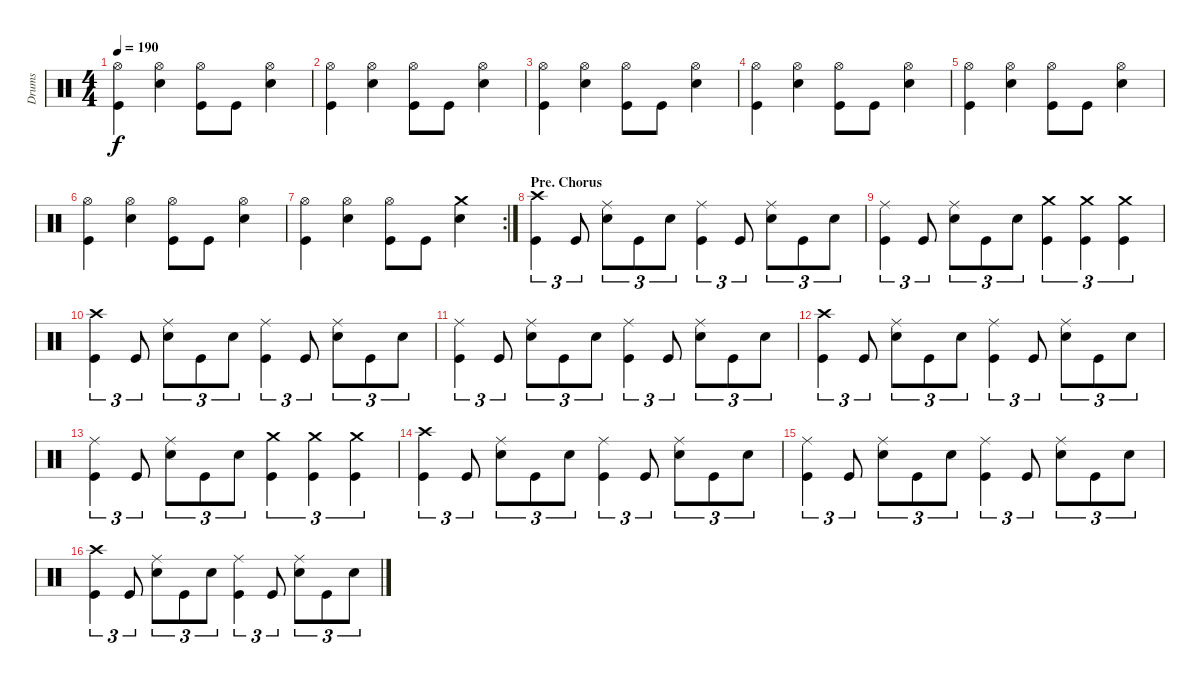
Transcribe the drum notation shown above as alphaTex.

\track ("Drums" "Drums") {instrument percussion}
\staff {score}
\articulation defaults
\ts (4 4)
\tempo 190
\clef neutral
\ks c
("Hi-Hat (open)" "Kick (hit)").4{dy f} ("Hi-Hat (open)" "Snare (hit) 2").4 ("Hi-Hat (open)" "Kick (hit)").8 "Kick (hit)".8 ("Hi-Hat (open)" "Snare (hit) 2").4 |
("Hi-Hat (open)" "Kick (hit)").4 ("Hi-Hat (open)" "Snare (hit) 2").4 ("Hi-Hat (open)" "Kick (hit)").8 "Kick (hit)".8 ("Hi-Hat (open)" "Snare (hit) 2").4 |
("Hi-Hat (open)" "Kick (hit)").4 ("Hi-Hat (open)" "Snare (hit) 2").4 ("Hi-Hat (open)" "Kick (hit)").8 "Kick (hit)".8 ("Hi-Hat (open)" "Snare (hit) 2").4 |
("Hi-Hat (open)" "Kick (hit)").4 ("Hi-Hat (open)" "Snare (hit) 2").4 ("Hi-Hat (open)" "Kick (hit)").8 "Kick (hit)".8 ("Hi-Hat (open)" "Snare (hit) 2").4 |
("Hi-Hat (open)" "Kick (hit)").4 ("Hi-Hat (open)" "Snare (hit) 2").4 ("Hi-Hat (open)" "Kick (hit)").8 "Kick (hit)".8 ("Hi-Hat (open)" "Snare (hit) 2").4 |
("Hi-Hat (open)" "Kick (hit)").4 ("Hi-Hat (open)" "Snare (hit) 2").4 ("Hi-Hat (open)" "Kick (hit)").8 "Kick (hit)".8 ("Hi-Hat (open)" "Snare (hit) 2").4 |
\rc 2
("Hi-Hat (open)" "Kick (hit)").4 ("Hi-Hat (open)" "Snare (hit) 2").4 ("Hi-Hat (open)" "Kick (hit)").8 "Kick (hit)".8 ("Crash medium (hit)" "Snare (hit) 2").4 |
\section ("" "Pre. Chorus")
("Crash high (hit)" "Kick (hit)").4{tu (3 2)} "Kick (hit)".8{tu (3 2)} ("Ride (middle)" "Snare (hit) 2").8{tu (3 2)} "Kick (hit)".8{tu (3 2)} "Snare (hit) 2".8{tu (3 2)} ("Ride (middle)" "Kick (hit)").4{tu (3 2)} "Kick (hit)".8{tu (3 2)} ("Ride (middle)" "Snare (hit) 2").8{tu (3 2)} "Kick (hit)".8{tu (3 2)} "Snare (hit) 2".8{tu (3 2)} |
("Ride (middle)" "Kick (hit)").4{tu (3 2)} "Kick (hit)".8{tu (3 2)} ("Ride (middle)" "Snare (hit) 2").8{tu (3 2)} "Kick (hit)".8{tu (3 2)} "Snare (hit) 2".8{tu (3 2)} ("Crash medium (hit)" "Kick (hit)").4{tu (3 2)} ("Crash medium (hit)" "Kick (hit)").4{tu (3 2)} ("Crash medium (hit)" "Kick (hit)").4{tu (3 2)} |
("Crash high (hit)" "Kick (hit)").4{tu (3 2)} "Kick (hit)".8{tu (3 2)} ("Ride (middle)" "Snare (hit) 2").8{tu (3 2)} "Kick (hit)".8{tu (3 2)} "Snare (hit) 2".8{tu (3 2)} ("Ride (middle)" "Kick (hit)").4{tu (3 2)} "Kick (hit)".8{tu (3 2)} ("Ride (middle)" "Snare (hit) 2").8{tu (3 2)} "Kick (hit)".8{tu (3 2)} "Snare (hit) 2".8{tu (3 2)} |
("Ride (middle)" "Kick (hit)").4{tu (3 2)} "Kick (hit)".8{tu (3 2)} ("Ride (middle)" "Snare (hit) 2").8{tu (3 2)} "Kick (hit)".8{tu (3 2)} "Snare (hit) 2".8{tu (3 2)} ("Ride (middle)" "Kick (hit)").4{tu (3 2)} "Kick (hit)".8{tu (3 2)} ("Ride (middle)" "Snare (hit) 2").8{tu (3 2)} "Kick (hit)".8{tu (3 2)} "Snare (hit) 2".8{tu (3 2)} |
("Crash high (hit)" "Kick (hit)").4{tu (3 2)} "Kick (hit)".8{tu (3 2)} ("Ride (middle)" "Snare (hit) 2").8{tu (3 2)} "Kick (hit)".8{tu (3 2)} "Snare (hit) 2".8{tu (3 2)} ("Ride (middle)" "Kick (hit)").4{tu (3 2)} "Kick (hit)".8{tu (3 2)} ("Ride (middle)" "Snare (hit) 2").8{tu (3 2)} "Kick (hit)".8{tu (3 2)} "Snare (hit) 2".8{tu (3 2)} |
("Ride (middle)" "Kick (hit)").4{tu (3 2)} "Kick (hit)".8{tu (3 2)} ("Ride (middle)" "Snare (hit) 2").8{tu (3 2)} "Kick (hit)".8{tu (3 2)} "Snare (hit) 2".8{tu (3 2)} ("Crash medium (hit)" "Kick (hit)").4{tu (3 2)} ("Crash medium (hit)" "Kick (hit)").4{tu (3 2)} ("Crash medium (hit)" "Kick (hit)").4{tu (3 2)} |
("Crash high (hit)" "Kick (hit)").4{tu (3 2)} "Kick (hit)".8{tu (3 2)} ("Ride (middle)" "Snare (hit) 2").8{tu (3 2)} "Kick (hit)".8{tu (3 2)} "Snare (hit) 2".8{tu (3 2)} ("Ride (middle)" "Kick (hit)").4{tu (3 2)} "Kick (hit)".8{tu (3 2)} ("Ride (middle)" "Snare (hit) 2").8{tu (3 2)} "Kick (hit)".8{tu (3 2)} "Snare (hit) 2".8{tu (3 2)} |
("Ride (middle)" "Kick (hit)").4{tu (3 2)} "Kick (hit)".8{tu (3 2)} ("Ride (middle)" "Snare (hit) 2").8{tu (3 2)} "Kick (hit)".8{tu (3 2)} "Snare (hit) 2".8{tu (3 2)} ("Ride (middle)" "Kick (hit)").4{tu (3 2)} "Kick (hit)".8{tu (3 2)} ("Ride (middle)" "Snare (hit) 2").8{tu (3 2)} "Kick (hit)".8{tu (3 2)} "Snare (hit) 2".8{tu (3 2)} |
("Crash high (hit)" "Kick (hit)").4{tu (3 2)} "Kick (hit)".8{tu (3 2)} ("Ride (middle)" "Snare (hit) 2").8{tu (3 2)} "Kick (hit)".8{tu (3 2)} "Snare (hit) 2".8{tu (3 2)} ("Ride (middle)" "Kick (hit)").4{tu (3 2)} "Kick (hit)".8{tu (3 2)} ("Ride (middle)" "Snare (hit) 2").8{tu (3 2)} "Kick (hit)".8{tu (3 2)} "Snare (hit) 2".8{tu (3 2)}
